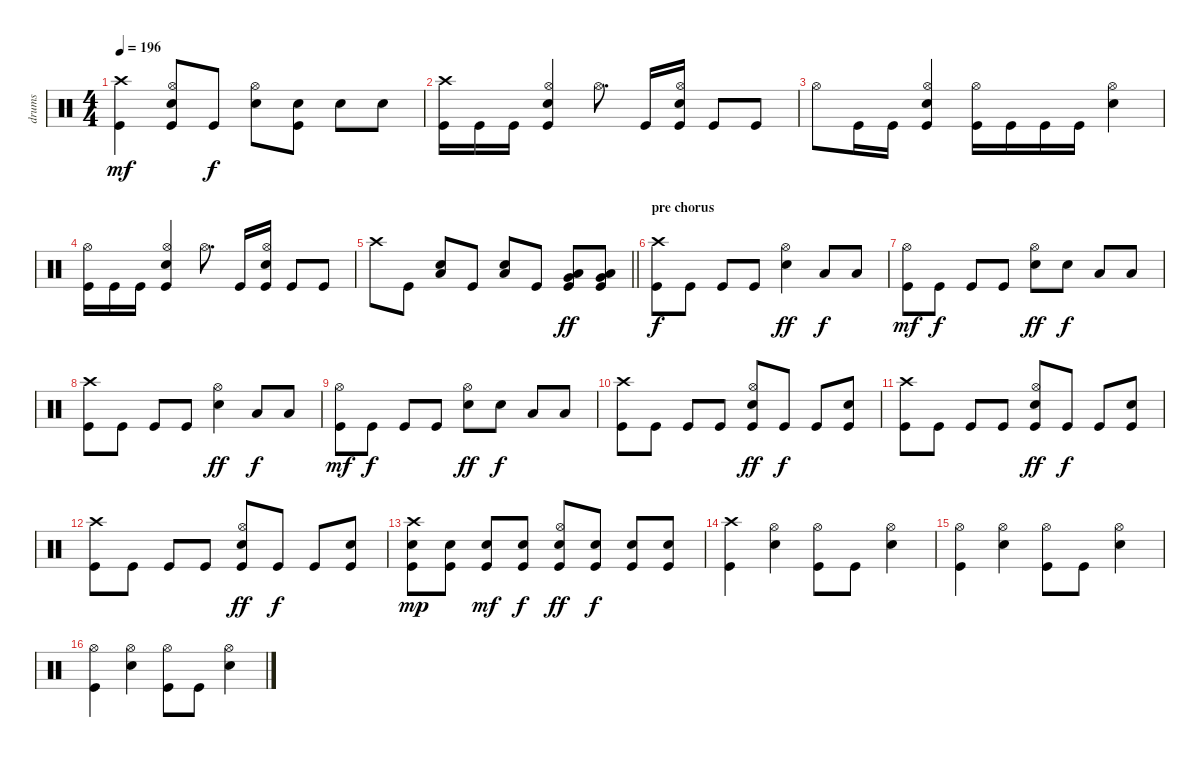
\track ("drums" "drums") {instrument percussion}
\staff {score}
\articulation defaults
\ts (4 4)
\tempo 196
\clef neutral
\ks c
("Crash high (hit)" "Kick (hit)").4{dy mf} ("Hi-Hat (open)" "Electric Snare (hit)" "Kick (hit)").8 "Kick (hit)".8{dy f} ("Hi-Hat (open)" "Electric Snare (hit)").8 ("Electric Snare (hit)" "Kick (hit)").8 "Electric Snare (hit)".8 "Electric Snare (hit)".8 |
("Crash high (hit)" "Kick (hit)").16 "Kick (hit)".16 "Kick (hit)".16 ("Hi-Hat (open)" "Electric Snare (hit)" "Kick (hit)").4 "Hi-Hat (open)".8{d} "Kick (hit)".16 ("Hi-Hat (open)" "Electric Snare (hit)" "Kick (hit)").16 "Kick (hit)".8 "Kick (hit)".8 |
"Hi-Hat (open)".8 "Kick (hit)".16 "Kick (hit)".16 ("Hi-Hat (open)" "Electric Snare (hit)" "Kick (hit)").4 ("Hi-Hat (open)" "Kick (hit)").16 "Kick (hit)".16 "Kick (hit)".16 "Kick (hit)".16 ("Hi-Hat (open)" "Electric Snare (hit)").4 |
("Hi-Hat (open)" "Kick (hit)").16 "Kick (hit)".16 "Kick (hit)".16 ("Hi-Hat (open)" "Electric Snare (hit)" "Kick (hit)").4 "Hi-Hat (open)".8{d} "Kick (hit)".16 ("Hi-Hat (open)" "Electric Snare (hit)" "Kick (hit)").16 "Kick (hit)".8 "Kick (hit)".8 |
\barLineRight lightlight "Crash high (hit)".8 "Kick (hit)".8
("Electric Snare (hit)" "Low Tom (hit)").8 "Kick (hit)".8 ("Electric Snare (hit)" "Low Floor Tom (hit)").8 "Kick (hit)".8 ("Very Low Tom (hit)" "Low Floor Tom (hit)" "Kick (hit)").8{dy ff} ("Very Low Tom (hit)" "Low Floor Tom (hit)" "Kick (hit)").8 |
\section ("" "pre chorus")
("Crash high (hit)" "Kick (hit)").8{dy f} "Kick (hit)".8 "Kick (hit)".8 "Kick (hit)".8 ("Hi-Hat (open)" "Electric Snare (hit)").4{dy ff} "Low Floor Tom (hit)".8{dy f} "Low Floor Tom (hit)".8 |
("Hi-Hat (open)" "Kick (hit)").8{dy mf} "Kick (hit)".8{dy f} "Kick (hit)".8 "Kick (hit)".8 ("Hi-Hat (open)" "Electric Snare (hit)").8{dy ff} "Electric Snare (hit)".8{dy f} "Low Floor Tom (hit)".8 "Low Floor Tom (hit)".8 |
("Crash high (hit)" "Kick (hit)").8 "Kick (hit)".8 "Kick (hit)".8 "Kick (hit)".8 ("Hi-Hat (open)" "Electric Snare (hit)").4{dy ff} "Low Floor Tom (hit)".8{dy f} "Low Floor Tom (hit)".8 |
("Hi-Hat (open)" "Kick (hit)").8{dy mf} "Kick (hit)".8{dy f} "Kick (hit)".8 "Kick (hit)".8 ("Hi-Hat (open)" "Electric Snare (hit)").8{dy ff} "Electric Snare (hit)".8{dy f} "Low Floor Tom (hit)".8 "Low Floor Tom (hit)".8 |
("Crash high (hit)" "Kick (hit)").8 "Kick (hit)".8 "Kick (hit)".8 "Kick (hit)".8 ("Hi-Hat (open)" "Electric Snare (hit)" "Kick (hit)").8{dy ff} "Kick (hit)".8{dy f} "Kick (hit)".8 ("Electric Snare (hit)" "Kick (hit)").8 |
("Crash high (hit)" "Kick (hit)").8 "Kick (hit)".8 "Kick (hit)".8 "Kick (hit)".8 ("Hi-Hat (open)" "Electric Snare (hit)" "Kick (hit)").8{dy ff} "Kick (hit)".8{dy f} "Kick (hit)".8 ("Electric Snare (hit)" "Kick (hit)").8 |
("Crash high (hit)" "Kick (hit)").8 "Kick (hit)".8 "Kick (hit)".8 "Kick (hit)".8 ("Hi-Hat (open)" "Electric Snare (hit)" "Kick (hit)").8{dy ff} "Kick (hit)".8{dy f} "Kick (hit)".8 ("Electric Snare (hit)" "Kick (hit)").8 |
("Crash high (hit)" "Electric Snare (hit)" "Kick (hit)").8{dy mp} ("Electric Snare (hit)" "Kick (hit)").8 ("Electric Snare (hit)" "Kick (hit)").8{dy mf} ("Electric Snare (hit)" "Kick (hit)").8{dy f} ("Hi-Hat (open)" "Electric Snare (hit)" "Kick (hit)").8{dy ff} ("Electric Snare (hit)" "Kick (hit)").8{dy f} ("Electric Snare (hit)" "Kick (hit)").8 ("Electric Snare (hit)" "Kick (hit)").8 |
("Crash high (hit)" "Kick (hit)").4 ("Hi-Hat (open)" "Electric Snare (hit)").4 ("Hi-Hat (open)" "Kick (hit)").8 "Kick (hit)".8 ("Hi-Hat (open)" "Electric Snare (hit)").4 |
("Hi-Hat (open)" "Kick (hit)").4 ("Hi-Hat (open)" "Electric Snare (hit)").4 ("Hi-Hat (open)" "Kick (hit)").8 "Kick (hit)".8 ("Hi-Hat (open)" "Electric Snare (hit)").4 |
("Hi-Hat (open)" "Kick (hit)").4 ("Hi-Hat (open)" "Electric Snare (hit)").4 ("Hi-Hat (open)" "Kick (hit)").8 "Kick (hit)".8 ("Hi-Hat (open)" "Electric Snare (hit)").4
